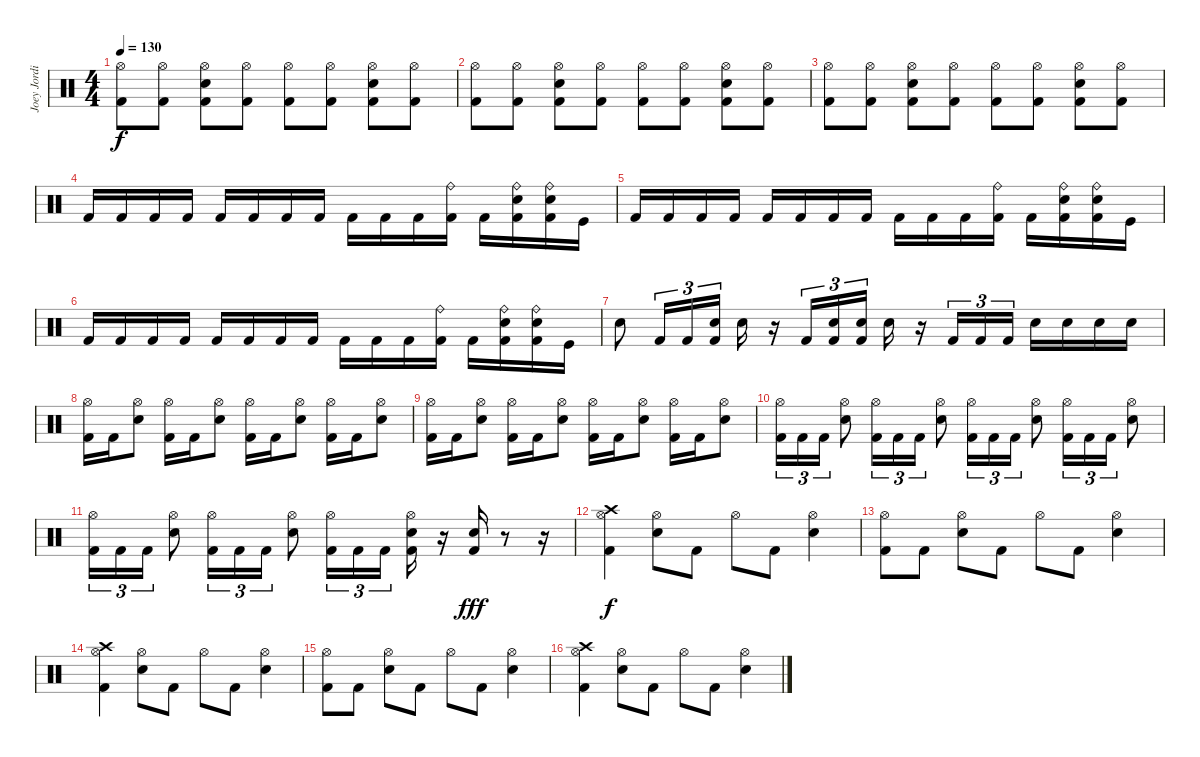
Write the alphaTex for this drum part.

\track ("Joey Jordison" "Joey Jordi") {instrument percussion}
\staff {score}
\articulation defaults
\ts (4 4)
\tempo 130
\clef neutral
\ks c
("Hi-Hat (open)" "Kick (hit) 2").8{dy f} ("Hi-Hat (open)" "Kick (hit) 2").8 ("Hi-Hat (open)" "Electric Snare (hit)" "Kick (hit) 2").8 ("Hi-Hat (open)" "Kick (hit) 2").8 ("Hi-Hat (open)" "Kick (hit) 2").8 ("Hi-Hat (open)" "Kick (hit) 2").8 ("Hi-Hat (open)" "Electric Snare (hit)" "Kick (hit) 2").8 ("Hi-Hat (open)" "Kick (hit) 2").8 |
("Hi-Hat (open)" "Kick (hit) 2").8 ("Hi-Hat (open)" "Kick (hit) 2").8 ("Hi-Hat (open)" "Electric Snare (hit)" "Kick (hit) 2").8 ("Hi-Hat (open)" "Kick (hit) 2").8 ("Hi-Hat (open)" "Kick (hit) 2").8 ("Hi-Hat (open)" "Kick (hit) 2").8 ("Hi-Hat (open)" "Electric Snare (hit)" "Kick (hit) 2").8 ("Hi-Hat (open)" "Kick (hit) 2").8 |
("Hi-Hat (open)" "Kick (hit) 2").8 ("Hi-Hat (open)" "Kick (hit) 2").8 ("Hi-Hat (open)" "Electric Snare (hit)" "Kick (hit) 2").8 ("Hi-Hat (open)" "Kick (hit) 2").8 ("Hi-Hat (open)" "Kick (hit) 2").8 ("Hi-Hat (open)" "Kick (hit) 2").8 ("Hi-Hat (open)" "Electric Snare (hit)" "Kick (hit) 2").8 ("Hi-Hat (open)" "Kick (hit) 2").8 |
"Kick (hit) 2".16 "Kick (hit) 2".16 "Kick (hit) 2".16 "Kick (hit) 2".16 "Kick (hit) 2".16 "Kick (hit) 2".16 "Kick (hit) 2".16 "Kick (hit) 2".16 "Kick (hit) 2".16 "Kick (hit) 2".16 "Kick (hit) 2".16 ("Ride (bell)" "Kick (hit) 2").16 "Kick (hit) 2".16 ("Ride (bell)" "Electric Snare (hit)" "Kick (hit) 2").16 ("Ride (bell)" "Electric Snare (hit)" "Kick (hit) 2").16 "Kick (hit)".16 |
"Kick (hit) 2".16 "Kick (hit) 2".16 "Kick (hit) 2".16 "Kick (hit) 2".16 "Kick (hit) 2".16 "Kick (hit) 2".16 "Kick (hit) 2".16 "Kick (hit) 2".16 "Kick (hit) 2".16 "Kick (hit) 2".16 "Kick (hit) 2".16 ("Ride (bell)" "Kick (hit) 2").16 "Kick (hit) 2".16 ("Ride (bell)" "Electric Snare (hit)" "Kick (hit) 2").16 ("Ride (bell)" "Electric Snare (hit)" "Kick (hit) 2").16 "Kick (hit)".16 |
"Kick (hit) 2".16 "Kick (hit) 2".16 "Kick (hit) 2".16 "Kick (hit) 2".16 "Kick (hit) 2".16 "Kick (hit) 2".16 "Kick (hit) 2".16 "Kick (hit) 2".16 "Kick (hit) 2".16 "Kick (hit) 2".16 "Kick (hit) 2".16 ("Ride (bell)" "Kick (hit) 2").16 "Kick (hit) 2".16 ("Ride (bell)" "Electric Snare (hit)" "Kick (hit) 2").16 ("Ride (bell)" "Electric Snare (hit)" "Kick (hit) 2").16 "Kick (hit)".16 |
"Electric Snare (hit)".8 "Kick (hit) 2".16{tu (3 2)} "Kick (hit) 2".16{tu (3 2)} ("Snare (hit)" "Kick (hit) 2").16{tu (3 2)} "Electric Snare (hit)".16 r.16 "Kick (hit) 2".16{tu (3 2)} ("Snare (hit)" "Kick (hit) 2").16{tu (3 2)} ("Snare (hit)" "Kick (hit) 2").16{tu (3 2)} "Electric Snare (hit)".16 r.16 "Kick (hit) 2".16{tu (3 2)} "Kick (hit) 2".16{tu (3 2)} "Kick (hit) 2".16{tu (3 2)} "Electric Snare (hit)".16 "Electric Snare (hit)".16 "Electric Snare (hit)".16 "Electric Snare (hit)".16 |
("Hi-Hat (open)" "Kick (hit) 2").16 "Kick (hit) 2".16 ("Hi-Hat (open)" "Electric Snare (hit)").8 ("Hi-Hat (open)" "Kick (hit) 2").16 "Kick (hit) 2".16 ("Hi-Hat (open)" "Electric Snare (hit)").8 ("Hi-Hat (open)" "Kick (hit) 2").16 "Kick (hit) 2".16 ("Hi-Hat (open)" "Electric Snare (hit)").8 ("Hi-Hat (open)" "Kick (hit) 2").16 "Kick (hit) 2".16 ("Hi-Hat (open)" "Electric Snare (hit)").8 |
("Hi-Hat (open)" "Kick (hit) 2").16 "Kick (hit) 2".16 ("Hi-Hat (open)" "Electric Snare (hit)").8 ("Hi-Hat (open)" "Kick (hit) 2").16 "Kick (hit) 2".16 ("Hi-Hat (open)" "Electric Snare (hit)").8 ("Hi-Hat (open)" "Kick (hit) 2").16 "Kick (hit) 2".16 ("Hi-Hat (open)" "Electric Snare (hit)").8 ("Hi-Hat (open)" "Kick (hit) 2").16 "Kick (hit) 2".16 ("Hi-Hat (open)" "Electric Snare (hit)").8 |
("Hi-Hat (open)" "Kick (hit) 2").16{tu (3 2)} "Kick (hit) 2".16{tu (3 2)} "Kick (hit) 2".16{tu (3 2)} ("Hi-Hat (open)" "Electric Snare (hit)").8 ("Hi-Hat (open)" "Kick (hit) 2").16{tu (3 2)} "Kick (hit) 2".16{tu (3 2)} "Kick (hit) 2".16{tu (3 2)} ("Hi-Hat (open)" "Electric Snare (hit)").8 ("Hi-Hat (open)" "Kick (hit) 2").16{tu (3 2)} "Kick (hit) 2".16{tu (3 2)} "Kick (hit) 2".16{tu (3 2)} ("Hi-Hat (open)" "Electric Snare (hit)").8 ("Hi-Hat (open)" "Kick (hit) 2").16{tu (3 2)} "Kick (hit) 2".16{tu (3 2)} "Kick (hit) 2".16{tu (3 2)} ("Hi-Hat (open)" "Electric Snare (hit)").8 |
("Hi-Hat (open)" "Kick (hit) 2").16{tu (3 2)} "Kick (hit) 2".16{tu (3 2)} "Kick (hit) 2".16{tu (3 2)} ("Hi-Hat (open)" "Electric Snare (hit)").8 ("Hi-Hat (open)" "Kick (hit) 2").16{tu (3 2)} "Kick (hit) 2".16{tu (3 2)} "Kick (hit) 2".16{tu (3 2)} ("Hi-Hat (open)" "Electric Snare (hit)").8 ("Hi-Hat (open)" "Kick (hit) 2").16{tu (3 2)} "Kick (hit) 2".16{tu (3 2)} "Kick (hit) 2".16{tu (3 2) beam splitsecondary} ("Hi-Hat (open)" "Kick (hit) 2" "Electric Snare (hit)").16 r.16 ("Electric Snare (hit)" "Kick (hit) 2").16{dy fff} r.8 r.16 |
("Hi-Hat (open)" "Crash high (hit)" "Kick (hit) 2").4{dy f} ("Hi-Hat (open)" "Electric Snare (hit)").8 "Kick (hit) 2".8 "Hi-Hat (open)".8 "Kick (hit) 2".8 ("Hi-Hat (open)" "Electric Snare (hit)").4 |
("Hi-Hat (open)" "Kick (hit) 2").8 "Kick (hit) 2".8 ("Hi-Hat (open)" "Electric Snare (hit)").8 "Kick (hit) 2".8 "Hi-Hat (open)".8 "Kick (hit) 2".8 ("Hi-Hat (open)" "Electric Snare (hit)").4 |
("Hi-Hat (open)" "Crash high (hit)" "Kick (hit) 2").4 ("Hi-Hat (open)" "Electric Snare (hit)").8 "Kick (hit) 2".8 "Hi-Hat (open)".8 "Kick (hit) 2".8 ("Hi-Hat (open)" "Electric Snare (hit)").4 |
("Hi-Hat (open)" "Kick (hit) 2").8 "Kick (hit) 2".8 ("Hi-Hat (open)" "Electric Snare (hit)").8 "Kick (hit) 2".8 "Hi-Hat (open)".8 "Kick (hit) 2".8 ("Hi-Hat (open)" "Electric Snare (hit)").4 |
("Hi-Hat (open)" "Crash high (hit)" "Kick (hit) 2").4 ("Hi-Hat (open)" "Electric Snare (hit)").8 "Kick (hit) 2".8 "Hi-Hat (open)".8 "Kick (hit) 2".8 ("Hi-Hat (open)" "Electric Snare (hit)").4
